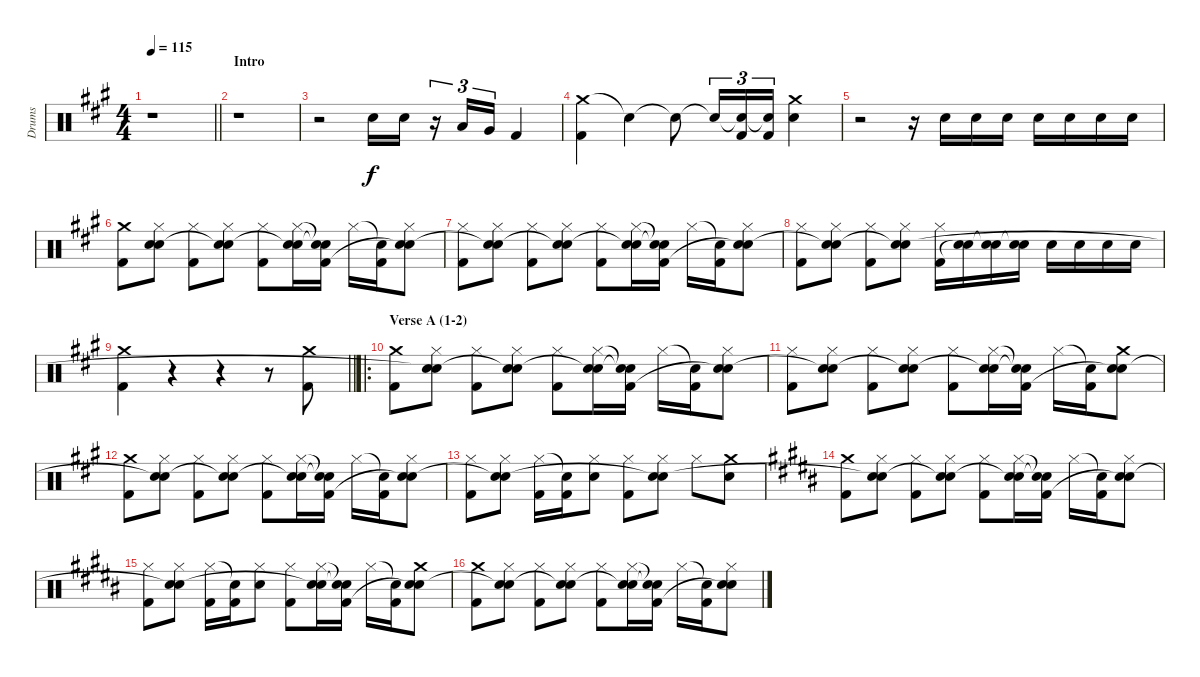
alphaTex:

\track ("Drums" "Drums") {instrument percussion}
\staff {score}
\articulation defaults
\ts (4 4)
\tempo 115
\clef neutral
\barLineRight lightlight
\ks a
r.1{dy f} |
\section ("" "Intro")
r.1 |
r.2 "Electric Snare (hit)".16 "Electric Snare (hit)".16 r.16{tu (3 2)} "Low Tom (hit)".16{tu (3 2)} "Very Low Tom (hit)".16{tu (3 2)} "Kick (hit) 2".4 |
("Crash medium (hit)" "Kick (hit) 2").4 "Snare (hit)"{t}.4 "Snare (hit)"{t}.8 "Snare (hit)"{t}.16{tu (3 2)} ("Snare (hit)"{t} "Kick (hit) 2").16{tu (3 2)} ("Snare (hit)"{t} "Kick (hit) 2").16{tu (3 2)} ("Crash medium (hit)" "Electric Snare (hit)").4 |
r.2 r.16 "Electric Snare (hit)".16 "Electric Snare (hit)".16 "Electric Snare (hit)".16 "Electric Snare (hit)".16 "Electric Snare (hit)".16 "Electric Snare (hit)".16 "Electric Snare (hit)".16 |
("Crash medium (hit)" "Kick (hit) 2").8 ("Hi-Hat (closed)" "Electric Snare (hit)" "Snare (hit)").8 ("Hi-Hat (closed)" "Kick (hit) 2").8 ("Hi-Hat (closed)" "Electric Snare (hit)" "Snare (hit)"{t}).8 ("Hi-Hat (closed)" "Kick (hit) 2").8 ("Hi-Hat (closed)" "Electric Snare (hit)" "Snare (hit)"{t}).16 ("Snare (hit)"{t} "Snare (hit)"{t} "Kick (hit) 2").16 "Hi-Hat (closed)".16 ("Snare (hit)"{t} "Kick (hit) 2").16 ("Hi-Hat (closed)" "Electric Snare (hit)" "Snare (hit)"{t}).8 |
("Hi-Hat (closed)" "Kick (hit) 2").8 ("Hi-Hat (closed)" "Electric Snare (hit)" "Snare (hit)"{t}).8 ("Hi-Hat (closed)" "Kick (hit) 2").8 ("Hi-Hat (closed)" "Electric Snare (hit)" "Snare (hit)"{t}).8 ("Hi-Hat (closed)" "Kick (hit) 2").8 ("Hi-Hat (closed)" "Electric Snare (hit)" "Snare (hit)"{t}).16 ("Snare (hit)"{t} "Snare (hit)"{t} "Kick (hit) 2").16 "Hi-Hat (closed)".16 ("Snare (hit)"{t} "Kick (hit) 2").16 ("Hi-Hat (closed)" "Electric Snare (hit)" "Snare (hit)"{t}).8 |
("Hi-Hat (closed)" "Kick (hit) 2").8 ("Hi-Hat (closed)" "Electric Snare (hit)" "Snare (hit)"{t}).8 ("Hi-Hat (closed)" "Kick (hit) 2").8 ("Hi-Hat (closed)" "Electric Snare (hit)" "Snare (hit)"{t}).8 ("Hi-Hat (closed)" "Kick (hit) 2").16 ("Electric Snare (hit)" "Snare (hit)"{t}).16 ("Electric Snare (hit)" "Snare (hit)"{t}).16 ("Electric Snare (hit)" "Snare (hit)"{t}).16 "Electric Snare (hit)".16 "Electric Snare (hit)".16 "Electric Snare (hit)".16 "Electric Snare (hit)".16 |
\barLineRight lightlight
("Crash medium (hit)" "Kick (hit) 2").4 r.4 r.4 r.8 ("Crash medium (hit)" "Kick (hit) 2").8 |
\ro
\section ("" "Verse A (1-2)")
("Crash medium (hit)" "Kick (hit) 2").8 ("Hi-Hat (closed)" "Electric Snare (hit)" "Snare (hit)"{t}).8 ("Hi-Hat (closed)" "Kick (hit) 2").8 ("Hi-Hat (closed)" "Electric Snare (hit)" "Snare (hit)"{t}).8 ("Hi-Hat (closed)" "Kick (hit) 2").8 ("Hi-Hat (closed)" "Electric Snare (hit)" "Snare (hit)"{t}).16 ("Snare (hit)"{t} "Snare (hit)"{t} "Kick (hit) 2").16 "Hi-Hat (closed)".16 ("Snare (hit)"{t} "Kick (hit) 2").16 ("Hi-Hat (closed)" "Electric Snare (hit)" "Snare (hit)"{t}).8 |
("Hi-Hat (closed)" "Kick (hit) 2").8 ("Hi-Hat (closed)" "Electric Snare (hit)" "Snare (hit)"{t}).8 ("Hi-Hat (closed)" "Kick (hit) 2").8 ("Hi-Hat (closed)" "Electric Snare (hit)" "Snare (hit)"{t}).8 ("Hi-Hat (closed)" "Kick (hit) 2").8 ("Hi-Hat (closed)" "Electric Snare (hit)" "Snare (hit)"{t}).16 ("Snare (hit)"{t} "Snare (hit)"{t} "Kick (hit) 2").16 "Hi-Hat (closed)".16 ("Snare (hit)"{t} "Kick (hit) 2").16 ("Crash medium (hit)" "Electric Snare (hit)" "Snare (hit)"{t}).8 |
("Crash medium (hit)" "Kick (hit) 2").8 ("Hi-Hat (closed)" "Electric Snare (hit)" "Snare (hit)"{t}).8 ("Hi-Hat (closed)" "Kick (hit) 2").8 ("Hi-Hat (closed)" "Electric Snare (hit)" "Snare (hit)"{t}).8 ("Hi-Hat (closed)" "Kick (hit) 2").8 ("Hi-Hat (closed)" "Electric Snare (hit)" "Snare (hit)"{t}).16 ("Snare (hit)"{t} "Snare (hit)"{t} "Kick (hit) 2").16 "Hi-Hat (closed)".16 ("Snare (hit)"{t} "Kick (hit) 2").16 ("Hi-Hat (closed)" "Electric Snare (hit)" "Snare (hit)"{t}).8 |
("Hi-Hat (closed)" "Kick (hit) 2").8 ("Hi-Hat (closed)" "Electric Snare (hit)" "Snare (hit)"{t}).8 ("Hi-Hat (closed)" "Kick (hit) 2").16 ("Snare (hit)"{t} "Kick (hit) 2").16 ("Hi-Hat (closed)" "Electric Snare (hit)").8 ("Hi-Hat (closed)" "Kick (hit) 2").8 ("Hi-Hat (closed)" "Electric Snare (hit)" "Snare (hit)"{t}).8 "Hi-Hat (closed)".8 ("Crash medium (hit)" "Electric Snare (hit)").8 |
\ks b
("Crash medium (hit)" "Kick (hit) 2").8 ("Hi-Hat (closed)" "Electric Snare (hit)" "Snare (hit)"{t}).8 ("Hi-Hat (closed)" "Kick (hit) 2").8 ("Hi-Hat (closed)" "Electric Snare (hit)" "Snare (hit)"{t}).8 ("Hi-Hat (closed)" "Kick (hit) 2").8 ("Hi-Hat (closed)" "Electric Snare (hit)" "Snare (hit)"{t}).16 ("Snare (hit)"{t} "Snare (hit)"{t} "Kick (hit) 2").16 "Hi-Hat (closed)".16 ("Snare (hit)"{t} "Kick (hit) 2").16 ("Hi-Hat (closed)" "Electric Snare (hit)" "Snare (hit)"{t}).8 |
("Hi-Hat (closed)" "Kick (hit) 2").8 ("Hi-Hat (closed)" "Electric Snare (hit)" "Snare (hit)"{t}).8 ("Hi-Hat (closed)" "Kick (hit) 2").16 ("Snare (hit)"{t} "Kick (hit) 2").16 ("Hi-Hat (closed)" "Electric Snare (hit)").8 ("Hi-Hat (closed)" "Kick (hit) 2").8 ("Hi-Hat (closed)" "Electric Snare (hit)" "Snare (hit)"{t}).16 ("Snare (hit)"{t} "Snare (hit)"{t} "Kick (hit) 2").16 "Hi-Hat (closed)".16 ("Snare (hit)"{t} "Kick (hit) 2").16 ("Crash medium (hit)" "Electric Snare (hit)" "Snare (hit)"{t}).8 |
("Crash medium (hit)" "Kick (hit) 2").8 ("Hi-Hat (closed)" "Electric Snare (hit)" "Snare (hit)"{t}).8 ("Hi-Hat (closed)" "Kick (hit) 2").8 ("Hi-Hat (closed)" "Electric Snare (hit)" "Snare (hit)"{t}).8 ("Hi-Hat (closed)" "Kick (hit) 2").8 ("Hi-Hat (closed)" "Electric Snare (hit)" "Snare (hit)"{t}).16 ("Snare (hit)"{t} "Snare (hit)"{t} "Kick (hit) 2").16 "Hi-Hat (closed)".16 ("Snare (hit)"{t} "Kick (hit) 2").16 ("Hi-Hat (closed)" "Electric Snare (hit)" "Snare (hit)"{t}).8
